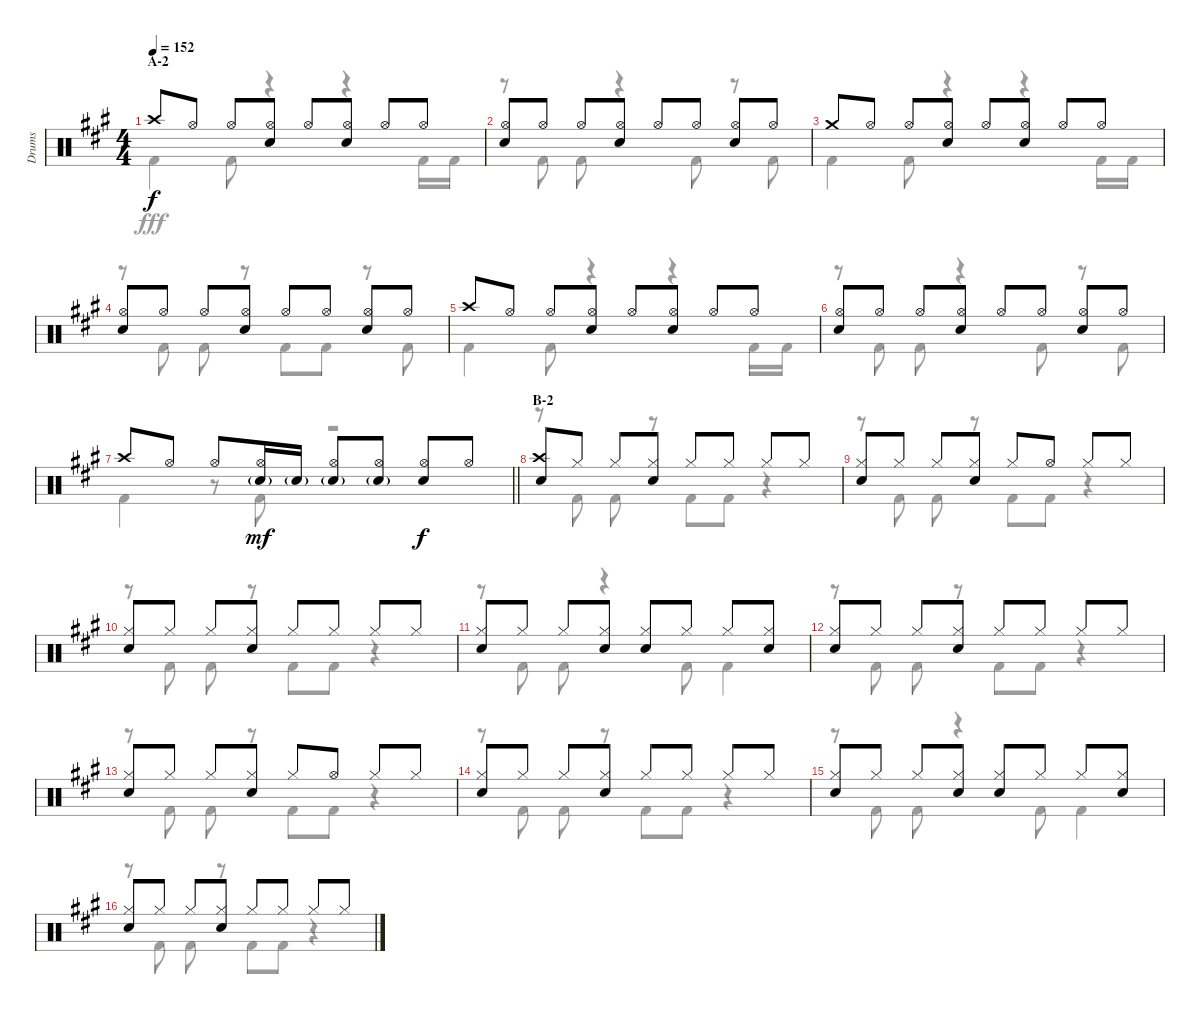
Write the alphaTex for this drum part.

\track ("Drums" "Drums") {instrument percussion}
\staff {score}
\articulation defaults
\voice
\ts (4 4)
\section ("" "A-2")
\tempo 152
\clef neutral
\ks a "Crash high (hit)".8{dy f} "Hi-Hat (open)".8 "Hi-Hat (open)".8
("Hi-Hat (open)" "Snare (hit) 2").8 "Hi-Hat (open)".8 ("Hi-Hat (open)" "Snare (hit) 2").8 "Hi-Hat (open)".8 "Hi-Hat (open)".8 |
("Hi-Hat (open)" "Snare (hit) 2").8 "Hi-Hat (open)".8 "Hi-Hat (open)".8 ("Hi-Hat (open)" "Snare (hit) 2").8 "Hi-Hat (open)".8 "Hi-Hat (open)".8 ("Hi-Hat (open)" "Snare (hit) 2").8 "Hi-Hat (open)".8 |
"Crash medium (hit)".8 "Hi-Hat (open)".8 "Hi-Hat (open)".8 ("Hi-Hat (open)" "Snare (hit) 2").8 "Hi-Hat (open)".8 ("Hi-Hat (open)" "Snare (hit) 2").8 "Hi-Hat (open)".8 "Hi-Hat (open)".8 |
("Hi-Hat (open)" "Snare (hit) 2").8 "Hi-Hat (open)".8 "Hi-Hat (open)".8 ("Hi-Hat (open)" "Snare (hit) 2").8 "Hi-Hat (open)".8 "Hi-Hat (open)".8 ("Hi-Hat (open)" "Snare (hit) 2").8 "Hi-Hat (open)".8 |
"Crash high (hit)".8 "Hi-Hat (open)".8 "Hi-Hat (open)".8 ("Hi-Hat (open)" "Snare (hit) 2").8 "Hi-Hat (open)".8 ("Hi-Hat (open)" "Snare (hit) 2").8 "Hi-Hat (open)".8 "Hi-Hat (open)".8 |
("Hi-Hat (open)" "Snare (hit) 2").8 "Hi-Hat (open)".8 "Hi-Hat (open)".8 ("Hi-Hat (open)" "Snare (hit) 2").8 "Hi-Hat (open)".8 "Hi-Hat (open)".8 ("Hi-Hat (open)" "Snare (hit) 2").8 "Hi-Hat (open)".8 |
\barLineRight lightlight "Crash high (hit)".8 "Hi-Hat (open)".8 "Hi-Hat (open)".8
("Hi-Hat (open)" "Snare (hit) 2"{g}).16{dy mf} "Snare (hit) 2"{g}.16 ("Hi-Hat (open)" "Snare (hit) 2"{g}).8 ("Hi-Hat (open)" "Snare (hit) 2"{g}).8 ("Hi-Hat (open)" "Snare (hit) 2").8{dy f} "Hi-Hat (open)".8 |
\section ("" "B-2")
("Crash high (hit)" "Snare (hit) 2").8 "Hi-Hat (closed)".8 "Hi-Hat (closed)".8 ("Hi-Hat (closed)" "Snare (hit) 2").8 "Hi-Hat (closed)".8 "Hi-Hat (closed)".8 "Hi-Hat (closed)".8 "Hi-Hat (closed)".8 |
("Hi-Hat (closed)" "Snare (hit) 2").8 "Hi-Hat (closed)".8 "Hi-Hat (closed)".8 ("Hi-Hat (closed)" "Snare (hit) 2").8 "Hi-Hat (closed)".8 "Hi-Hat (open)".8 "Hi-Hat (closed)".8 "Hi-Hat (closed)".8 |
("Hi-Hat (closed)" "Snare (hit) 2").8 "Hi-Hat (closed)".8 "Hi-Hat (closed)".8 ("Hi-Hat (closed)" "Snare (hit) 2").8 "Hi-Hat (closed)".8 "Hi-Hat (closed)".8 "Hi-Hat (closed)".8 "Hi-Hat (closed)".8 |
("Hi-Hat (closed)" "Snare (hit) 2").8 "Hi-Hat (closed)".8 "Hi-Hat (closed)".8 ("Hi-Hat (closed)" "Snare (hit) 2").8 ("Hi-Hat (closed)" "Snare (hit) 2").8 "Hi-Hat (closed)".8 "Hi-Hat (closed)".8 ("Hi-Hat (closed)" "Snare (hit) 2").8 |
("Hi-Hat (closed)" "Snare (hit) 2").8 "Hi-Hat (closed)".8 "Hi-Hat (closed)".8 ("Hi-Hat (closed)" "Snare (hit) 2").8 "Hi-Hat (closed)".8 "Hi-Hat (closed)".8 "Hi-Hat (closed)".8 "Hi-Hat (closed)".8 |
("Hi-Hat (closed)" "Snare (hit) 2").8 "Hi-Hat (closed)".8 "Hi-Hat (closed)".8 ("Hi-Hat (closed)" "Snare (hit) 2").8 "Hi-Hat (closed)".8 "Hi-Hat (open)".8 "Hi-Hat (closed)".8 "Hi-Hat (closed)".8 |
("Hi-Hat (closed)" "Snare (hit) 2").8 "Hi-Hat (closed)".8 "Hi-Hat (closed)".8 ("Hi-Hat (closed)" "Snare (hit) 2").8 "Hi-Hat (closed)".8 "Hi-Hat (closed)".8 "Hi-Hat (closed)".8 "Hi-Hat (closed)".8 |
("Hi-Hat (closed)" "Snare (hit) 2").8 "Hi-Hat (closed)".8 "Hi-Hat (closed)".8 ("Hi-Hat (closed)" "Snare (hit) 2").8 ("Hi-Hat (closed)" "Snare (hit) 2").8 "Hi-Hat (closed)".8 "Hi-Hat (closed)".8 ("Hi-Hat (closed)" "Snare (hit) 2").8 |
("Hi-Hat (closed)" "Snare (hit) 2").8 "Hi-Hat (closed)".8 "Hi-Hat (closed)".8 ("Hi-Hat (closed)" "Snare (hit) 2").8 "Hi-Hat (closed)".8 "Hi-Hat (closed)".8 "Hi-Hat (closed)".8 "Hi-Hat (closed)".8
\voice
\clef neutral
\ottava regular
\simile none
\ks a "Kick (hit) 2".4{dy fff} "Kick (hit) 2".8
r.4 r.4 "Kick (hit) 2".16 "Kick (hit) 2".16 |
r.8 "Kick (hit) 2".8 "Kick (hit) 2".8 r.4 "Kick (hit) 2".8 r.8 "Kick (hit) 2".8 |
"Kick (hit) 2".4 "Kick (hit) 2".8 r.4 r.4 "Kick (hit) 2".16 "Kick (hit) 2".16 |
r.8 "Kick (hit) 2".8 "Kick (hit) 2".8 r.8 "Kick (hit) 2".8 "Kick (hit) 2".8 r.8 "Kick (hit) 2".8 |
"Kick (hit) 2".4 "Kick (hit) 2".8 r.4 r.4 "Kick (hit) 2".16 "Kick (hit) 2".16 |
r.8 "Kick (hit) 2".8 "Kick (hit) 2".8 r.4 "Kick (hit) 2".8 r.8 "Kick (hit) 2".8 |
\barLineRight lightlight "Kick (hit) 2".4
r.8 "Kick (hit) 2".8 r.2 |
r.8 "Kick (hit) 2".8 "Kick (hit) 2".8 r.8 "Kick (hit) 2".8 "Kick (hit) 2".8 r.4 |
r.8 "Kick (hit) 2".8 "Kick (hit) 2".8 r.8 "Kick (hit) 2".8 "Kick (hit) 2".8 r.4 |
r.8 "Kick (hit) 2".8 "Kick (hit) 2".8 r.8 "Kick (hit) 2".8 "Kick (hit) 2".8 r.4 |
r.8 "Kick (hit) 2".8 "Kick (hit) 2".8 r.4 "Kick (hit) 2".8 "Kick (hit) 2".4 |
r.8 "Kick (hit) 2".8 "Kick (hit) 2".8 r.8 "Kick (hit) 2".8 "Kick (hit) 2".8 r.4 |
r.8 "Kick (hit) 2".8 "Kick (hit) 2".8 r.8 "Kick (hit) 2".8 "Kick (hit) 2".8 r.4 |
r.8 "Kick (hit) 2".8 "Kick (hit) 2".8 r.8 "Kick (hit) 2".8 "Kick (hit) 2".8 r.4 |
r.8 "Kick (hit) 2".8 "Kick (hit) 2".8 r.4 "Kick (hit) 2".8 "Kick (hit) 2".4 |
r.8 "Kick (hit) 2".8 "Kick (hit) 2".8 r.8 "Kick (hit) 2".8 "Kick (hit) 2".8 r.4
